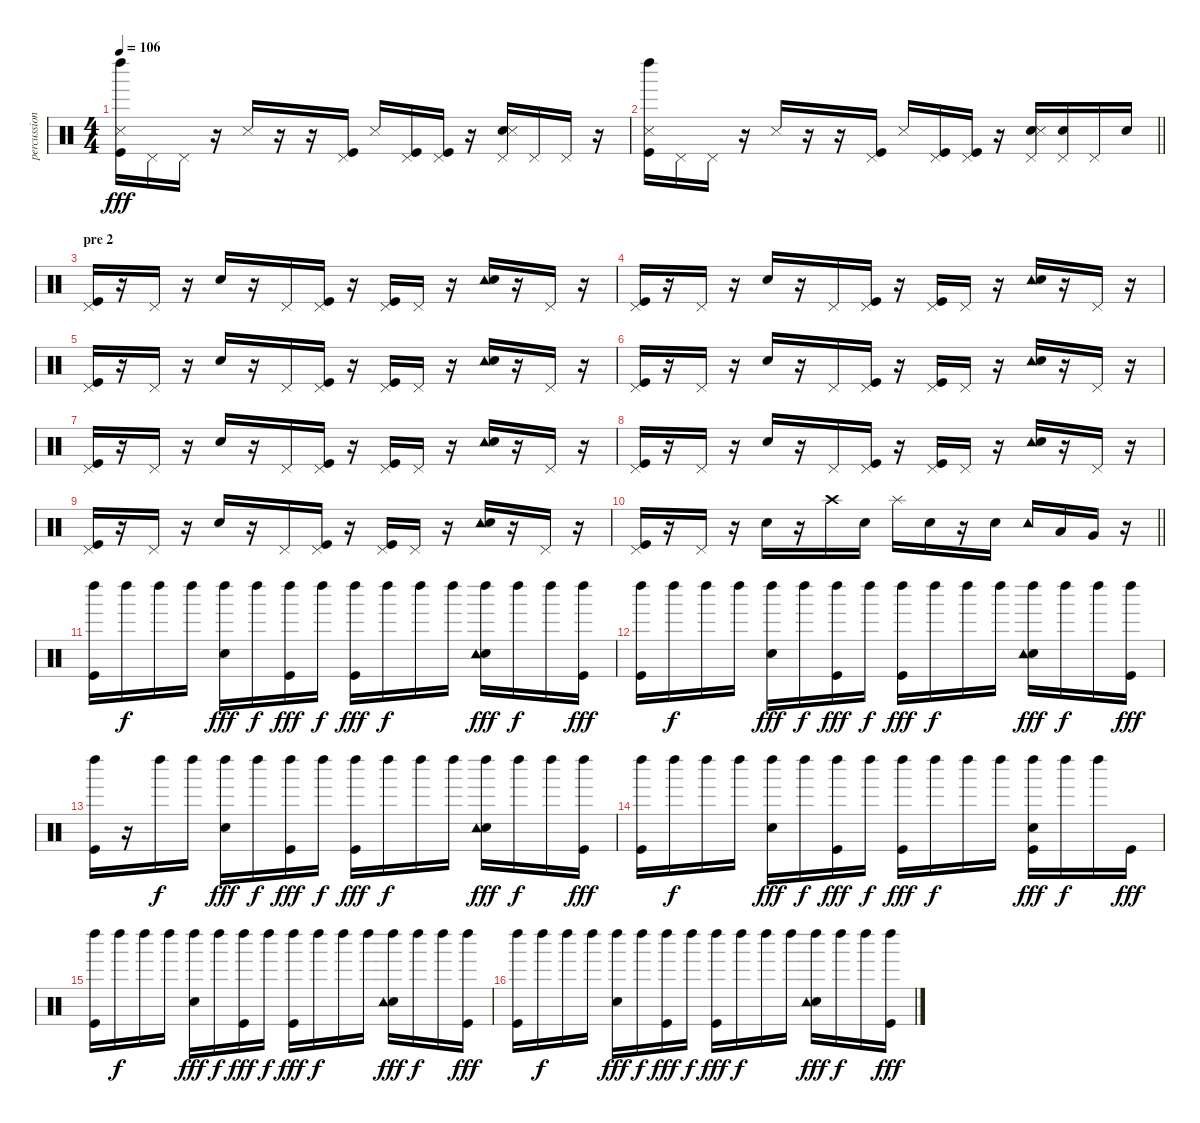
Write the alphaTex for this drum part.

\track ("percussions" "percussion") {instrument percussion}
\staff {score}
\articulation defaults
\ts (4 4)
\tempo 106
\clef neutral
\ks c
("Left Maraca (hit)" "Kick (hit)" "Snare (side stick) 3").16{dy fff} "Pedal Hi-Hat (hit)".16 "Pedal Hi-Hat (hit)".16 r.16 "Snare (side stick) 3".16 r.16 r.16 ("Pedal Hi-Hat (hit)" "Kick (hit)").16 "Snare (side stick) 3".16 ("Pedal Hi-Hat (hit)" "Kick (hit)").16 ("Pedal Hi-Hat (hit)" "Kick (hit)").16 r.16 ("Pedal Hi-Hat (hit)" "Snare (hit) 2" "Snare (side stick) 3").16 "Pedal Hi-Hat (hit)".16 "Pedal Hi-Hat (hit)".16 r.16 |
\barLineRight lightlight
("Left Maraca (hit)" "Kick (hit)" "Snare (side stick) 3").16 "Pedal Hi-Hat (hit)".16 "Pedal Hi-Hat (hit)".16 r.16 "Snare (side stick) 3".16 r.16 r.16 ("Pedal Hi-Hat (hit)" "Kick (hit)").16 "Snare (side stick) 3".16 ("Pedal Hi-Hat (hit)" "Kick (hit)").16 ("Pedal Hi-Hat (hit)" "Kick (hit)").16 r.16 ("Pedal Hi-Hat (hit)" "Snare (hit) 2" "Snare (side stick) 3").16 ("Pedal Hi-Hat (hit)" "Snare (hit) 2").16 "Pedal Hi-Hat (hit)".16 "Snare (hit) 2".16 |
\section ("" "pre 2")
("Pedal Hi-Hat (hit)" "Kick (hit)").16 r.16 "Pedal Hi-Hat (hit)".16 r.16 "Snare (hit) 2".16 r.16 "Pedal Hi-Hat (hit)".16 ("Pedal Hi-Hat (hit)" "Kick (hit)").16 r.16 ("Pedal Hi-Hat (hit)" "Kick (hit)").16 "Pedal Hi-Hat (hit)".16 r.16 ("Tambourine (hit)" "Snare (hit) 2").16 r.16 "Pedal Hi-Hat (hit)".16 r.16 |
("Pedal Hi-Hat (hit)" "Kick (hit)").16 r.16 "Pedal Hi-Hat (hit)".16 r.16 "Snare (hit) 2".16 r.16 "Pedal Hi-Hat (hit)".16 ("Pedal Hi-Hat (hit)" "Kick (hit)").16 r.16 ("Pedal Hi-Hat (hit)" "Kick (hit)").16 "Pedal Hi-Hat (hit)".16 r.16 ("Tambourine (hit)" "Snare (hit) 2").16 r.16 "Pedal Hi-Hat (hit)".16 r.16 |
("Pedal Hi-Hat (hit)" "Kick (hit)").16 r.16 "Pedal Hi-Hat (hit)".16 r.16 "Snare (hit) 2".16 r.16 "Pedal Hi-Hat (hit)".16 ("Pedal Hi-Hat (hit)" "Kick (hit)").16 r.16 ("Pedal Hi-Hat (hit)" "Kick (hit)").16 "Pedal Hi-Hat (hit)".16 r.16 ("Tambourine (hit)" "Snare (hit) 2").16 r.16 "Pedal Hi-Hat (hit)".16 r.16 |
("Pedal Hi-Hat (hit)" "Kick (hit)").16 r.16 "Pedal Hi-Hat (hit)".16 r.16 "Snare (hit) 2".16 r.16 "Pedal Hi-Hat (hit)".16 ("Pedal Hi-Hat (hit)" "Kick (hit)").16 r.16 ("Pedal Hi-Hat (hit)" "Kick (hit)").16 "Pedal Hi-Hat (hit)".16 r.16 ("Tambourine (hit)" "Snare (hit) 2").16 r.16 "Pedal Hi-Hat (hit)".16 r.16 |
("Pedal Hi-Hat (hit)" "Kick (hit)").16 r.16 "Pedal Hi-Hat (hit)".16 r.16 "Snare (hit) 2".16 r.16 "Pedal Hi-Hat (hit)".16 ("Pedal Hi-Hat (hit)" "Kick (hit)").16 r.16 ("Pedal Hi-Hat (hit)" "Kick (hit)").16 "Pedal Hi-Hat (hit)".16 r.16 ("Tambourine (hit)" "Snare (hit) 2").16 r.16 "Pedal Hi-Hat (hit)".16 r.16 |
("Pedal Hi-Hat (hit)" "Kick (hit)").16 r.16 "Pedal Hi-Hat (hit)".16 r.16 "Snare (hit) 2".16 r.16 "Pedal Hi-Hat (hit)".16 ("Pedal Hi-Hat (hit)" "Kick (hit)").16 r.16 ("Pedal Hi-Hat (hit)" "Kick (hit)").16 "Pedal Hi-Hat (hit)".16 r.16 ("Tambourine (hit)" "Snare (hit) 2").16 r.16 "Pedal Hi-Hat (hit)".16 r.16 |
("Pedal Hi-Hat (hit)" "Kick (hit)").16 r.16 "Pedal Hi-Hat (hit)".16 r.16 "Snare (hit) 2".16 r.16 "Pedal Hi-Hat (hit)".16 ("Pedal Hi-Hat (hit)" "Kick (hit)").16 r.16 ("Pedal Hi-Hat (hit)" "Kick (hit)").16 "Pedal Hi-Hat (hit)".16 r.16 ("Tambourine (hit)" "Snare (hit) 2").16 r.16 "Pedal Hi-Hat (hit)".16 r.16 |
\barLineRight lightlight
("Pedal Hi-Hat (hit)" "Kick (hit)").16 r.16 "Pedal Hi-Hat (hit)".16 r.16 "Snare (hit) 2".16 r.16 "Crash high (hit)".16 "Snare (hit) 2".16 "Splash (hit)".16 "Snare (hit) 2".16 r.16 "Snare (hit) 2".16 "Tambourine (hit)".16 "Low Tom (hit)".16 "Very Low Tom (hit)".16 r.16 |
("Left Maraca (hit)" "Kick (hit)").16 "Left Maraca (hit)".16{dy f} "Left Maraca (hit)".16 "Left Maraca (hit)".16 ("Left Maraca (hit)" "Snare (hit) 2").16{dy fff} "Left Maraca (hit)".16{dy f} ("Left Maraca (hit)" "Kick (hit)").16{dy fff} "Left Maraca (hit)".16{dy f} ("Left Maraca (hit)" "Kick (hit)").16{dy fff} "Left Maraca (hit)".16{dy f} "Left Maraca (hit)".16 "Left Maraca (hit)".16 ("Left Maraca (hit)" "Snare (hit) 2" "Tambourine (hit)").16{dy fff} "Left Maraca (hit)".16{dy f} "Left Maraca (hit)".16 ("Left Maraca (hit)" "Kick (hit)").16{dy fff} |
("Left Maraca (hit)" "Kick (hit)").16 "Left Maraca (hit)".16{dy f} "Left Maraca (hit)".16 "Left Maraca (hit)".16 ("Left Maraca (hit)" "Snare (hit) 2").16{dy fff} "Left Maraca (hit)".16{dy f} ("Left Maraca (hit)" "Kick (hit)").16{dy fff} "Left Maraca (hit)".16{dy f} ("Left Maraca (hit)" "Kick (hit)").16{dy fff} "Left Maraca (hit)".16{dy f} "Left Maraca (hit)".16 "Left Maraca (hit)".16 ("Left Maraca (hit)" "Snare (hit) 2" "Tambourine (hit)").16{dy fff} "Left Maraca (hit)".16{dy f} "Left Maraca (hit)".16 ("Left Maraca (hit)" "Kick (hit)").16{dy fff} |
("Left Maraca (hit)" "Kick (hit)").16 r.16 "Left Maraca (hit)".16{dy f} "Left Maraca (hit)".16 ("Left Maraca (hit)" "Snare (hit) 2").16{dy fff} "Left Maraca (hit)".16{dy f} ("Left Maraca (hit)" "Kick (hit)").16{dy fff} "Left Maraca (hit)".16{dy f} ("Left Maraca (hit)" "Kick (hit)").16{dy fff} "Left Maraca (hit)".16{dy f} "Left Maraca (hit)".16 "Left Maraca (hit)".16 ("Left Maraca (hit)" "Snare (hit) 2" "Tambourine (hit)").16{dy fff} "Left Maraca (hit)".16{dy f} "Left Maraca (hit)".16 ("Left Maraca (hit)" "Kick (hit)").16{dy fff} |
("Left Maraca (hit)" "Kick (hit)").16 "Left Maraca (hit)".16{dy f} "Left Maraca (hit)".16 "Left Maraca (hit)".16 ("Left Maraca (hit)" "Snare (hit) 2").16{dy fff} "Left Maraca (hit)".16{dy f} ("Left Maraca (hit)" "Kick (hit)").16{dy fff} "Left Maraca (hit)".16{dy f} ("Left Maraca (hit)" "Kick (hit)").16{dy fff} "Left Maraca (hit)".16{dy f} "Left Maraca (hit)".16 "Left Maraca (hit)".16 ("Left Maraca (hit)" "Snare (hit) 2" "Kick (hit)").16{dy fff} "Left Maraca (hit)".16{dy f} "Left Maraca (hit)".16 "Kick (hit)".16{dy fff} |
("Left Maraca (hit)" "Kick (hit)").16 "Left Maraca (hit)".16{dy f} "Left Maraca (hit)".16 "Left Maraca (hit)".16 ("Left Maraca (hit)" "Snare (hit) 2").16{dy fff} "Left Maraca (hit)".16{dy f} ("Left Maraca (hit)" "Kick (hit)").16{dy fff} "Left Maraca (hit)".16{dy f} ("Left Maraca (hit)" "Kick (hit)").16{dy fff} "Left Maraca (hit)".16{dy f} "Left Maraca (hit)".16 "Left Maraca (hit)".16 ("Left Maraca (hit)" "Snare (hit) 2" "Tambourine (hit)").16{dy fff} "Left Maraca (hit)".16{dy f} "Left Maraca (hit)".16 ("Left Maraca (hit)" "Kick (hit)").16{dy fff} |
("Left Maraca (hit)" "Kick (hit)").16 "Left Maraca (hit)".16{dy f} "Left Maraca (hit)".16 "Left Maraca (hit)".16 ("Left Maraca (hit)" "Snare (hit) 2").16{dy fff} "Left Maraca (hit)".16{dy f} ("Left Maraca (hit)" "Kick (hit)").16{dy fff} "Left Maraca (hit)".16{dy f} ("Left Maraca (hit)" "Kick (hit)").16{dy fff} "Left Maraca (hit)".16{dy f} "Left Maraca (hit)".16 "Left Maraca (hit)".16 ("Left Maraca (hit)" "Snare (hit) 2" "Tambourine (hit)").16{dy fff} "Left Maraca (hit)".16{dy f} "Left Maraca (hit)".16 ("Left Maraca (hit)" "Kick (hit)").16{dy fff}
